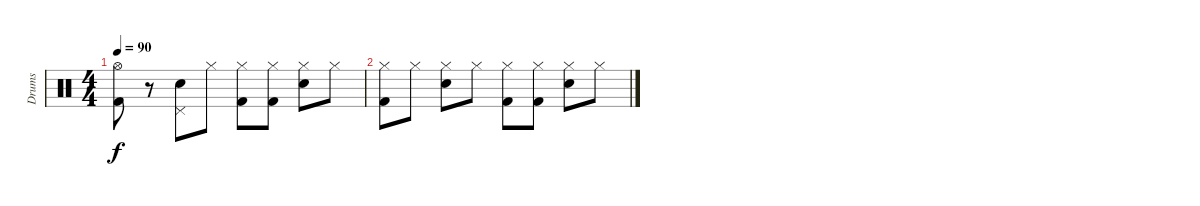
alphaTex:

\track ("Drums" "Drums") {instrument percussion}
\staff {score}
\articulation defaults
\ts (4 4)
\tempo 90
\clef neutral
\ks c
("Hi-Hat (open)" "Kick (hit) 2").8{dy f} r.8 ("Pedal Hi-Hat (hit)" "Electric Snare (hit)").8 "Hi-Hat (closed)".8 ("Hi-Hat (closed)" "Kick (hit) 2").8 ("Hi-Hat (closed)" "Kick (hit) 2").8 ("Hi-Hat (closed)" "Electric Snare (hit)").8 "Hi-Hat (closed)".8 |
("Hi-Hat (closed)" "Kick (hit) 2").8 "Hi-Hat (closed)".8 ("Hi-Hat (closed)" "Electric Snare (hit)").8 "Hi-Hat (closed)".8 ("Hi-Hat (closed)" "Kick (hit) 2").8 ("Hi-Hat (closed)" "Kick (hit) 2").8 ("Hi-Hat (closed)" "Electric Snare (hit)").8 "Hi-Hat (closed)".8
